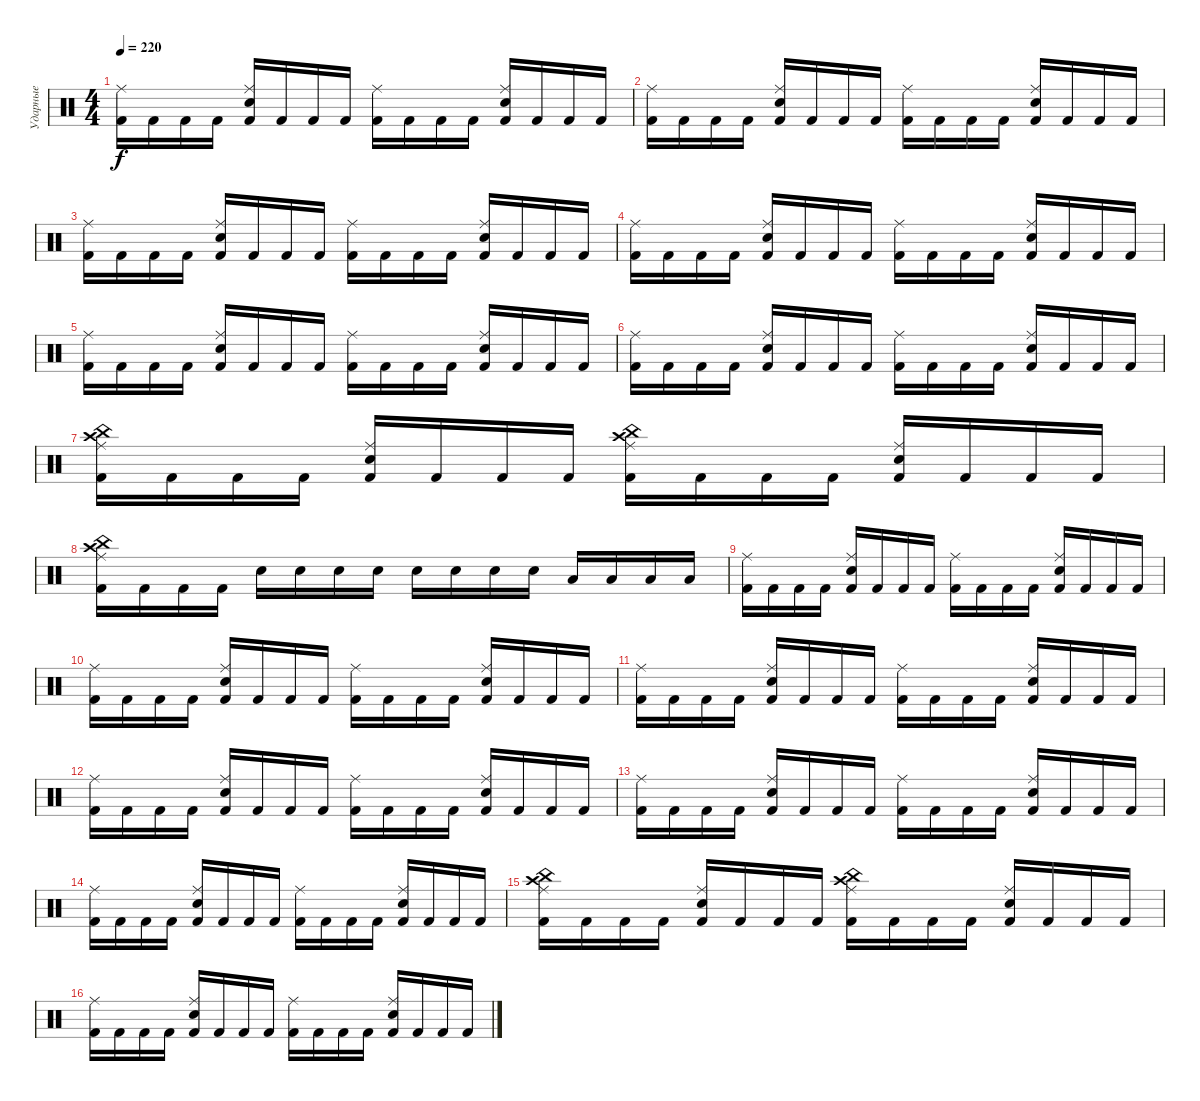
\track ("Ударные" "Ударные") {instrument percussion}
\staff {score}
\articulation defaults
\ts (4 4)
\tempo 220
\clef neutral
\ks c
("Kick (hit) 2" "Ride (middle)").16{dy f} "Kick (hit) 2".16 "Kick (hit) 2".16 "Kick (hit) 2".16 ("Kick (hit) 2" "Ride (middle)" "Electric Snare (hit)").16 "Kick (hit) 2".16 "Kick (hit) 2".16 "Kick (hit) 2".16 ("Kick (hit) 2" "Ride (middle)").16 "Kick (hit) 2".16 "Kick (hit) 2".16 "Kick (hit) 2".16 ("Kick (hit) 2" "Ride (middle)" "Electric Snare (hit)").16 "Kick (hit) 2".16 "Kick (hit) 2".16 "Kick (hit) 2".16 |
("Kick (hit) 2" "Ride (middle)").16 "Kick (hit) 2".16 "Kick (hit) 2".16 "Kick (hit) 2".16 ("Kick (hit) 2" "Ride (middle)" "Electric Snare (hit)").16 "Kick (hit) 2".16 "Kick (hit) 2".16 "Kick (hit) 2".16 ("Kick (hit) 2" "Ride (middle)").16 "Kick (hit) 2".16 "Kick (hit) 2".16 "Kick (hit) 2".16 ("Kick (hit) 2" "Ride (middle)" "Electric Snare (hit)").16 "Kick (hit) 2".16 "Kick (hit) 2".16 "Kick (hit) 2".16 |
("Kick (hit) 2" "Ride (middle)").16 "Kick (hit) 2".16 "Kick (hit) 2".16 "Kick (hit) 2".16 ("Kick (hit) 2" "Ride (middle)" "Electric Snare (hit)").16 "Kick (hit) 2".16 "Kick (hit) 2".16 "Kick (hit) 2".16 ("Kick (hit) 2" "Ride (middle)").16 "Kick (hit) 2".16 "Kick (hit) 2".16 "Kick (hit) 2".16 ("Kick (hit) 2" "Ride (middle)" "Electric Snare (hit)").16 "Kick (hit) 2".16 "Kick (hit) 2".16 "Kick (hit) 2".16 |
("Kick (hit) 2" "Ride (middle)").16 "Kick (hit) 2".16 "Kick (hit) 2".16 "Kick (hit) 2".16 ("Kick (hit) 2" "Ride (middle)" "Electric Snare (hit)").16 "Kick (hit) 2".16 "Kick (hit) 2".16 "Kick (hit) 2".16 ("Kick (hit) 2" "Ride (middle)").16 "Kick (hit) 2".16 "Kick (hit) 2".16 "Kick (hit) 2".16 ("Kick (hit) 2" "Ride (middle)" "Electric Snare (hit)").16 "Kick (hit) 2".16 "Kick (hit) 2".16 "Kick (hit) 2".16 |
("Kick (hit) 2" "Ride (middle)").16 "Kick (hit) 2".16 "Kick (hit) 2".16 "Kick (hit) 2".16 ("Kick (hit) 2" "Ride (middle)" "Electric Snare (hit)").16 "Kick (hit) 2".16 "Kick (hit) 2".16 "Kick (hit) 2".16 ("Kick (hit) 2" "Ride (middle)").16 "Kick (hit) 2".16 "Kick (hit) 2".16 "Kick (hit) 2".16 ("Kick (hit) 2" "Ride (middle)" "Electric Snare (hit)").16 "Kick (hit) 2".16 "Kick (hit) 2".16 "Kick (hit) 2".16 |
("Kick (hit) 2" "Ride (middle)").16 "Kick (hit) 2".16 "Kick (hit) 2".16 "Kick (hit) 2".16 ("Kick (hit) 2" "Ride (middle)" "Electric Snare (hit)").16 "Kick (hit) 2".16 "Kick (hit) 2".16 "Kick (hit) 2".16 ("Kick (hit) 2" "Ride (middle)").16 "Kick (hit) 2".16 "Kick (hit) 2".16 "Kick (hit) 2".16 ("Kick (hit) 2" "Ride (middle)" "Electric Snare (hit)").16 "Kick (hit) 2".16 "Kick (hit) 2".16 "Kick (hit) 2".16 |
("Kick (hit) 2" "Ride (middle)" "Crash high (hit)" "China (hit)").16 "Kick (hit) 2".16 "Kick (hit) 2".16 "Kick (hit) 2".16 ("Kick (hit) 2" "Ride (middle)" "Electric Snare (hit)").16 "Kick (hit) 2".16 "Kick (hit) 2".16 "Kick (hit) 2".16 ("Kick (hit) 2" "Ride (middle)" "China (hit)" "Crash high (hit)").16 "Kick (hit) 2".16 "Kick (hit) 2".16 "Kick (hit) 2".16 ("Kick (hit) 2" "Ride (middle)" "Electric Snare (hit)").16 "Kick (hit) 2".16 "Kick (hit) 2".16 "Kick (hit) 2".16 |
("Kick (hit) 2" "Ride (middle)" "China (hit)" "Crash high (hit)").16 "Kick (hit) 2".16 "Kick (hit) 2".16 "Kick (hit) 2".16 "Electric Snare (hit)".16 "Electric Snare (hit)".16 "Electric Snare (hit)".16 "Electric Snare (hit)".16 "Snare (hit) 2".16 "Snare (hit) 2".16 "Snare (hit) 2".16 "Snare (hit) 2".16 "Low Tom (hit)".16 "Low Tom (hit)".16 "Low Tom (hit)".16 "Low Tom (hit)".16 |
("Kick (hit) 2" "Ride (middle)").16 "Kick (hit) 2".16 "Kick (hit) 2".16 "Kick (hit) 2".16 ("Kick (hit) 2" "Ride (middle)" "Electric Snare (hit)").16 "Kick (hit) 2".16 "Kick (hit) 2".16 "Kick (hit) 2".16 ("Kick (hit) 2" "Ride (middle)").16 "Kick (hit) 2".16 "Kick (hit) 2".16 "Kick (hit) 2".16 ("Kick (hit) 2" "Ride (middle)" "Electric Snare (hit)").16 "Kick (hit) 2".16 "Kick (hit) 2".16 "Kick (hit) 2".16 |
("Kick (hit) 2" "Ride (middle)").16 "Kick (hit) 2".16 "Kick (hit) 2".16 "Kick (hit) 2".16 ("Kick (hit) 2" "Ride (middle)" "Electric Snare (hit)").16 "Kick (hit) 2".16 "Kick (hit) 2".16 "Kick (hit) 2".16 ("Kick (hit) 2" "Ride (middle)").16 "Kick (hit) 2".16 "Kick (hit) 2".16 "Kick (hit) 2".16 ("Kick (hit) 2" "Ride (middle)" "Electric Snare (hit)").16 "Kick (hit) 2".16 "Kick (hit) 2".16 "Kick (hit) 2".16 |
("Kick (hit) 2" "Ride (middle)").16 "Kick (hit) 2".16 "Kick (hit) 2".16 "Kick (hit) 2".16 ("Kick (hit) 2" "Ride (middle)" "Electric Snare (hit)").16 "Kick (hit) 2".16 "Kick (hit) 2".16 "Kick (hit) 2".16 ("Kick (hit) 2" "Ride (middle)").16 "Kick (hit) 2".16 "Kick (hit) 2".16 "Kick (hit) 2".16 ("Kick (hit) 2" "Ride (middle)" "Electric Snare (hit)").16 "Kick (hit) 2".16 "Kick (hit) 2".16 "Kick (hit) 2".16 |
("Kick (hit) 2" "Ride (middle)").16 "Kick (hit) 2".16 "Kick (hit) 2".16 "Kick (hit) 2".16 ("Kick (hit) 2" "Ride (middle)" "Electric Snare (hit)").16 "Kick (hit) 2".16 "Kick (hit) 2".16 "Kick (hit) 2".16 ("Kick (hit) 2" "Ride (middle)").16 "Kick (hit) 2".16 "Kick (hit) 2".16 "Kick (hit) 2".16 ("Kick (hit) 2" "Ride (middle)" "Electric Snare (hit)").16 "Kick (hit) 2".16 "Kick (hit) 2".16 "Kick (hit) 2".16 |
("Kick (hit) 2" "Ride (middle)").16 "Kick (hit) 2".16 "Kick (hit) 2".16 "Kick (hit) 2".16 ("Kick (hit) 2" "Ride (middle)" "Electric Snare (hit)").16 "Kick (hit) 2".16 "Kick (hit) 2".16 "Kick (hit) 2".16 ("Kick (hit) 2" "Ride (middle)").16 "Kick (hit) 2".16 "Kick (hit) 2".16 "Kick (hit) 2".16 ("Kick (hit) 2" "Ride (middle)" "Electric Snare (hit)").16 "Kick (hit) 2".16 "Kick (hit) 2".16 "Kick (hit) 2".16 |
("Kick (hit) 2" "Ride (middle)").16 "Kick (hit) 2".16 "Kick (hit) 2".16 "Kick (hit) 2".16 ("Kick (hit) 2" "Ride (middle)" "Electric Snare (hit)").16 "Kick (hit) 2".16 "Kick (hit) 2".16 "Kick (hit) 2".16 ("Kick (hit) 2" "Ride (middle)").16 "Kick (hit) 2".16 "Kick (hit) 2".16 "Kick (hit) 2".16 ("Kick (hit) 2" "Ride (middle)" "Electric Snare (hit)").16 "Kick (hit) 2".16 "Kick (hit) 2".16 "Kick (hit) 2".16 |
("Kick (hit) 2" "Ride (middle)" "China (hit)" "Crash high (hit)").16 "Kick (hit) 2".16 "Kick (hit) 2".16 "Kick (hit) 2".16 ("Kick (hit) 2" "Ride (middle)" "Electric Snare (hit)").16 "Kick (hit) 2".16 "Kick (hit) 2".16 "Kick (hit) 2".16 ("Kick (hit) 2" "Ride (middle)" "Crash high (hit)" "China (hit)").16 "Kick (hit) 2".16 "Kick (hit) 2".16 "Kick (hit) 2".16 ("Kick (hit) 2" "Ride (middle)" "Electric Snare (hit)").16 "Kick (hit) 2".16 "Kick (hit) 2".16 "Kick (hit) 2".16 |
("Kick (hit) 2" "Ride (middle)").16 "Kick (hit) 2".16 "Kick (hit) 2".16 "Kick (hit) 2".16 ("Kick (hit) 2" "Ride (middle)" "Electric Snare (hit)").16 "Kick (hit) 2".16 "Kick (hit) 2".16 "Kick (hit) 2".16 ("Kick (hit) 2" "Ride (middle)").16 "Kick (hit) 2".16 "Kick (hit) 2".16 "Kick (hit) 2".16 ("Kick (hit) 2" "Ride (middle)" "Electric Snare (hit)").16 "Kick (hit) 2".16 "Kick (hit) 2".16 "Kick (hit) 2".16
